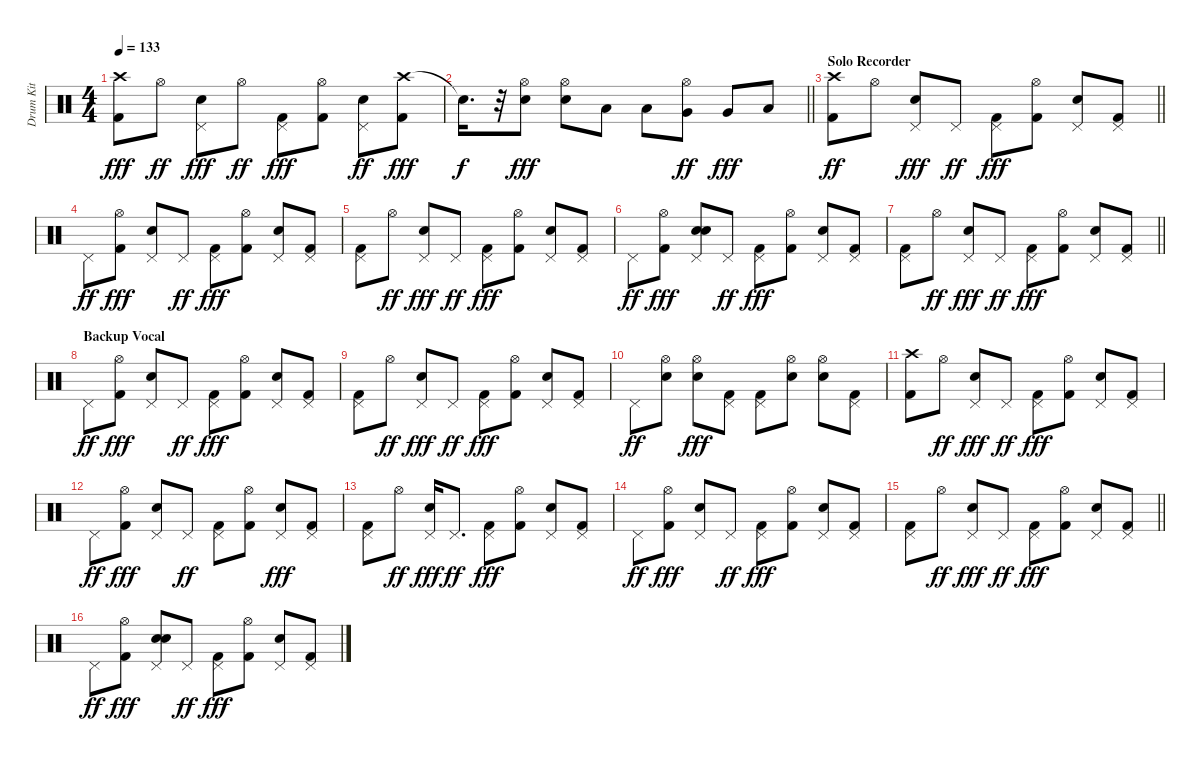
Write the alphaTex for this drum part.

\track ("Drum Kit" "Drum Kit") {instrument percussion}
\staff {score}
\articulation defaults
\ts (4 4)
\tempo 133
\clef neutral
\ks c
("Crash high (hit)" "Kick (hit) 2").8{dy fff} "Hi-Hat (open)".8{dy ff} ("Pedal Hi-Hat (hit)" "Electric Snare (hit)").8{dy fff} "Hi-Hat (open)".8{dy ff} ("Pedal Hi-Hat (hit)" "Kick (hit) 2").8{dy fff} ("Hi-Hat (open)" "Kick (hit) 2").8 ("Electric Snare (hit)" "Pedal Hi-Hat (hit)").8{dy ff} ("Crash high (hit)" "Kick (hit) 2").8{dy fff} |
\barLineRight lightlight "Snare (hit)"{t}.16{d dy f}
r.32 ("Hi-Hat (open)" "Electric Snare (hit)").8{dy fff} ("Hi-Hat (open)" "Electric Snare (hit)").8 "Low Tom (hit)".8 "Low Tom (hit)".8 ("Very Low Tom (hit)" "Hi-Hat (open)").8{dy ff} "Very Low Tom (hit)".8{dy fff} "Low Floor Tom (hit)".8 |
\section ("" "Solo Recorder")
\barLineRight lightlight
("Kick (hit) 2" "Crash high (hit)").8{dy ff} "Hi-Hat (open)".8 ("Pedal Hi-Hat (hit)" "Electric Snare (hit)").8{dy fff} "Pedal Hi-Hat (hit)".8{dy ff} ("Pedal Hi-Hat (hit)" "Kick (hit) 2").8{dy fff} ("Hi-Hat (open)" "Kick (hit) 2").8 ("Pedal Hi-Hat (hit)" "Electric Snare (hit)").8 ("Pedal Hi-Hat (hit)" "Kick (hit) 2").8 |
"Pedal Hi-Hat (hit)".8{dy ff} ("Hi-Hat (open)" "Kick (hit) 2").8{dy fff} ("Pedal Hi-Hat (hit)" "Electric Snare (hit)").8 "Pedal Hi-Hat (hit)".8{dy ff} ("Pedal Hi-Hat (hit)" "Kick (hit) 2").8{dy fff} ("Hi-Hat (open)" "Kick (hit) 2").8 ("Pedal Hi-Hat (hit)" "Electric Snare (hit)").8 ("Pedal Hi-Hat (hit)" "Kick (hit) 2").8 |
("Pedal Hi-Hat (hit)" "Kick (hit) 2").8 "Hi-Hat (open)".8{dy ff} ("Pedal Hi-Hat (hit)" "Electric Snare (hit)").8{dy fff} "Pedal Hi-Hat (hit)".8{dy ff} ("Pedal Hi-Hat (hit)" "Kick (hit) 2").8{dy fff} ("Hi-Hat (open)" "Kick (hit) 2").8 ("Pedal Hi-Hat (hit)" "Electric Snare (hit)").8 ("Pedal Hi-Hat (hit)" "Kick (hit) 2").8 |
"Pedal Hi-Hat (hit)".8{dy ff} ("Hi-Hat (open)" "Kick (hit) 2").8{dy fff} ("Pedal Hi-Hat (hit)" "Electric Snare (hit)" "Electric Snare (hit)").8 "Pedal Hi-Hat (hit)".8{dy ff} ("Pedal Hi-Hat (hit)" "Kick (hit) 2").8{dy fff} ("Hi-Hat (open)" "Kick (hit) 2").8 ("Pedal Hi-Hat (hit)" "Electric Snare (hit)").8 ("Pedal Hi-Hat (hit)" "Kick (hit) 2").8 |
\barLineRight lightlight
("Pedal Hi-Hat (hit)" "Kick (hit) 2").8 "Hi-Hat (open)".8{dy ff} ("Pedal Hi-Hat (hit)" "Electric Snare (hit)").8{dy fff} "Pedal Hi-Hat (hit)".8{dy ff} ("Pedal Hi-Hat (hit)" "Kick (hit) 2").8{dy fff} ("Hi-Hat (open)" "Kick (hit) 2").8 ("Pedal Hi-Hat (hit)" "Electric Snare (hit)").8 ("Pedal Hi-Hat (hit)" "Kick (hit) 2").8 |
\section ("" "Backup Vocal")
"Pedal Hi-Hat (hit)".8{dy ff} ("Hi-Hat (open)" "Kick (hit) 2").8{dy fff} ("Pedal Hi-Hat (hit)" "Electric Snare (hit)").8 "Pedal Hi-Hat (hit)".8{dy ff} ("Pedal Hi-Hat (hit)" "Kick (hit) 2").8{dy fff} ("Hi-Hat (open)" "Kick (hit) 2").8 ("Pedal Hi-Hat (hit)" "Electric Snare (hit)").8 ("Pedal Hi-Hat (hit)" "Kick (hit) 2").8 |
("Pedal Hi-Hat (hit)" "Kick (hit) 2").8 "Hi-Hat (open)".8{dy ff} ("Pedal Hi-Hat (hit)" "Electric Snare (hit)").8{dy fff} "Pedal Hi-Hat (hit)".8{dy ff} ("Pedal Hi-Hat (hit)" "Kick (hit) 2").8{dy fff} ("Hi-Hat (open)" "Kick (hit) 2").8 ("Pedal Hi-Hat (hit)" "Electric Snare (hit)").8 ("Pedal Hi-Hat (hit)" "Kick (hit) 2").8 |
"Pedal Hi-Hat (hit)".8{dy ff} ("Electric Snare (hit)" "Hi-Hat (open)").8 ("Hi-Hat (open)" "Electric Snare (hit)").8{dy fff} ("Pedal Hi-Hat (hit)" "Kick (hit) 2").8 ("Pedal Hi-Hat (hit)" "Kick (hit) 2").8 ("Hi-Hat (open)" "Electric Snare (hit)").8 ("Hi-Hat (open)" "Electric Snare (hit)").8 ("Pedal Hi-Hat (hit)" "Kick (hit) 2").8 |
("Crash high (hit)" "Kick (hit) 2").8 "Hi-Hat (open)".8{dy ff} ("Pedal Hi-Hat (hit)" "Electric Snare (hit)").8{dy fff} "Pedal Hi-Hat (hit)".8{dy ff} ("Pedal Hi-Hat (hit)" "Kick (hit) 2").8{dy fff} ("Hi-Hat (open)" "Kick (hit) 2").8 ("Pedal Hi-Hat (hit)" "Electric Snare (hit)").8 ("Pedal Hi-Hat (hit)" "Kick (hit) 2").8 |
"Pedal Hi-Hat (hit)".8{dy ff} ("Hi-Hat (open)" "Kick (hit) 2").8{dy fff} ("Pedal Hi-Hat (hit)" "Electric Snare (hit)").8 "Pedal Hi-Hat (hit)".8{dy ff} ("Kick (hit) 2" "Pedal Hi-Hat (hit)").8 ("Kick (hit) 2" "Hi-Hat (open)").8 ("Pedal Hi-Hat (hit)" "Electric Snare (hit)").8{dy fff} ("Pedal Hi-Hat (hit)" "Kick (hit) 2").8 |
("Pedal Hi-Hat (hit)" "Kick (hit) 2").8 "Hi-Hat (open)".8{dy ff} ("Pedal Hi-Hat (hit)" "Electric Snare (hit)").16{dy fff} "Pedal Hi-Hat (hit)".8{d dy ff} ("Pedal Hi-Hat (hit)" "Kick (hit) 2").8{dy fff} ("Hi-Hat (open)" "Kick (hit) 2").8 ("Pedal Hi-Hat (hit)" "Electric Snare (hit)").8 ("Pedal Hi-Hat (hit)" "Kick (hit) 2").8 |
"Pedal Hi-Hat (hit)".8{dy ff} ("Hi-Hat (open)" "Kick (hit) 2").8{dy fff} ("Pedal Hi-Hat (hit)" "Electric Snare (hit)").8 "Pedal Hi-Hat (hit)".8{dy ff} ("Pedal Hi-Hat (hit)" "Kick (hit) 2").8{dy fff} ("Hi-Hat (open)" "Kick (hit) 2").8 ("Pedal Hi-Hat (hit)" "Electric Snare (hit)").8 ("Pedal Hi-Hat (hit)" "Kick (hit) 2").8 |
\barLineRight lightlight
("Pedal Hi-Hat (hit)" "Kick (hit) 2").8 "Hi-Hat (open)".8{dy ff} ("Pedal Hi-Hat (hit)" "Electric Snare (hit)").8{dy fff} "Pedal Hi-Hat (hit)".8{dy ff} ("Pedal Hi-Hat (hit)" "Kick (hit) 2").8{dy fff} ("Hi-Hat (open)" "Kick (hit) 2").8 ("Pedal Hi-Hat (hit)" "Electric Snare (hit)").8 ("Pedal Hi-Hat (hit)" "Kick (hit) 2").8 |
"Pedal Hi-Hat (hit)".8{dy ff} ("Hi-Hat (open)" "Kick (hit) 2").8{dy fff} ("Pedal Hi-Hat (hit)" "Electric Snare (hit)" "Electric Snare (hit)").8 "Pedal Hi-Hat (hit)".8{dy ff} ("Pedal Hi-Hat (hit)" "Kick (hit) 2").8{dy fff} ("Hi-Hat (open)" "Kick (hit) 2").8 ("Pedal Hi-Hat (hit)" "Electric Snare (hit)").8 ("Pedal Hi-Hat (hit)" "Kick (hit) 2").8
